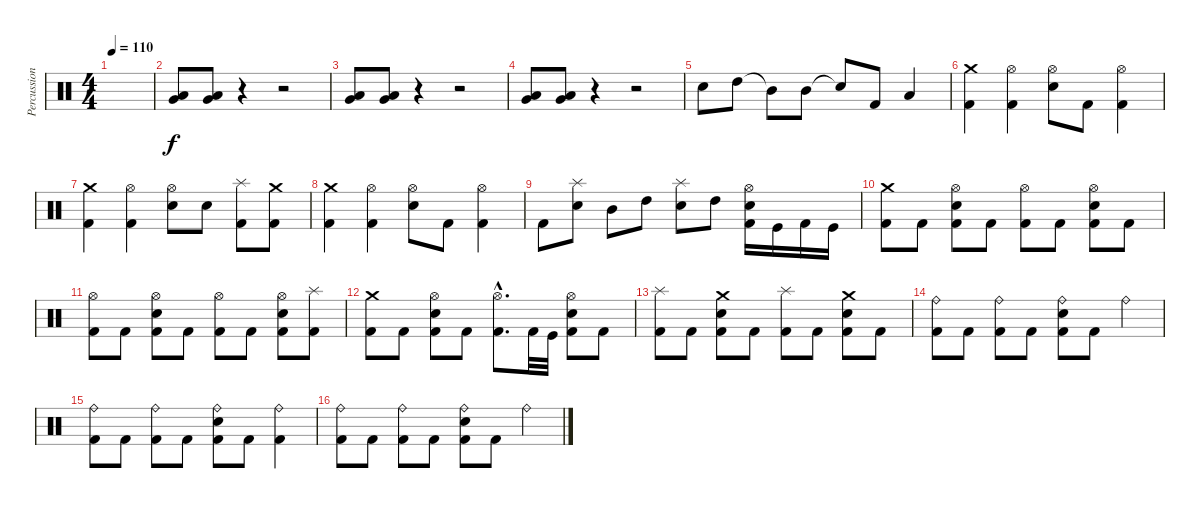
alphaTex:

\track ("Percussions" "Percussion") {instrument percussion}
\staff {score}
\articulation defaults
\ts (4 4)
\tempo 110
\clef neutral
\ks c
|
("Low Floor Tom (hit)" "Very Low Tom (hit)").8 ("Low Floor Tom (hit)" "Very Low Tom (hit)").8 r.4 r.2 |
("Low Floor Tom (hit)" "Very Low Tom (hit)").8 ("Low Floor Tom (hit)" "Very Low Tom (hit)").8 r.4 r.2 |
("Low Floor Tom (hit)" "Very Low Tom (hit)").8 ("Low Floor Tom (hit)" "Very Low Tom (hit)").8 r.4 r.2 |
"Electric Snare (hit)".8 "High Tom (hit)".8 "Mid Tom (hit)"{t}.8 "Mid Tom (hit)".8 "Snare (hit)"{t}.8 "Kick (hit) 2".8 "Low Floor Tom (hit)".4 |
("Crash medium (hit)" "Kick (hit) 2").4 ("Hi-Hat (open)" "Kick (hit) 2").4 ("Hi-Hat (open)" "Electric Snare (hit)").8 "Kick (hit) 2".8 ("Hi-Hat (open)" "Kick (hit) 2").4 |
("Crash medium (hit)" "Kick (hit) 2").4 ("Hi-Hat (open)" "Kick (hit) 2").4 ("Hi-Hat (open)" "Electric Snare (hit)").8 "Electric Snare (hit)".8 ("Splash (hit)" "Kick (hit) 2").8 ("Crash medium (hit)" "Kick (hit) 2").8 |
("Crash medium (hit)" "Kick (hit) 2").4 ("Hi-Hat (open)" "Kick (hit) 2").4 ("Hi-Hat (open)" "Electric Snare (hit)").8 "Kick (hit) 2".8 ("Hi-Hat (open)" "Kick (hit) 2").4 |
"Kick (hit) 2".8 ("Splash (hit)" "Electric Snare (hit)").8 "Mid Tom (hit)".8 "High Tom (hit)".8 ("Splash (hit)" "Electric Snare (hit)").8 "High Tom (hit)".8 ("Hi-Hat (open)" "Electric Snare (hit)" "Kick (hit) 2").16 "Kick (hit)".16 "Kick (hit) 2".16 "Kick (hit)".16 |
("Crash medium (hit)" "Kick (hit) 2").8 "Kick (hit) 2".8 ("Hi-Hat (open)" "Electric Snare (hit)" "Kick (hit) 2").8 "Kick (hit) 2".8 ("Hi-Hat (open)" "Kick (hit) 2").8 "Kick (hit) 2".8 ("Hi-Hat (open)" "Electric Snare (hit)" "Kick (hit) 2").8 "Kick (hit) 2".8 |
("Hi-Hat (open)" "Kick (hit) 2").8 "Kick (hit) 2".8 ("Hi-Hat (open)" "Electric Snare (hit)" "Kick (hit) 2").8 "Kick (hit) 2".8 ("Hi-Hat (open)" "Kick (hit) 2").8 "Kick (hit) 2".8 ("Hi-Hat (open)" "Electric Snare (hit)" "Kick (hit) 2").8 ("Splash (hit)" "Kick (hit) 2").8 |
("Crash medium (hit)" "Kick (hit) 2").8 "Kick (hit) 2".8 ("Hi-Hat (open)" "Electric Snare (hit)" "Kick (hit) 2").8 "Kick (hit) 2".8 ("Hi-Hat (open)"{hac} "Kick (hit) 2"{hac}).8{d} "Kick (hit) 2".32 "Kick (hit)".32 ("Hi-Hat (open)" "Electric Snare (hit)" "Kick (hit) 2").8 "Kick (hit) 2".8 |
("Splash (hit)" "Kick (hit) 2").8 "Kick (hit) 2".8 ("Crash medium (hit)" "Electric Snare (hit)" "Kick (hit) 2").8 "Kick (hit) 2".8 ("Splash (hit)" "Kick (hit) 2").8 "Kick (hit) 2".8 ("Crash medium (hit)" "Electric Snare (hit)" "Kick (hit) 2").8 "Kick (hit) 2".8 |
("Ride (bell)" "Kick (hit) 2").8 "Kick (hit) 2".8 ("Ride (bell)" "Kick (hit) 2").8 "Kick (hit) 2".8 ("Ride (bell)" "Electric Snare (hit)" "Kick (hit) 2").8 "Kick (hit) 2".8 "Ride (bell)".4 |
("Ride (bell)" "Kick (hit) 2").8 "Kick (hit) 2".8 ("Ride (bell)" "Kick (hit) 2").8 "Kick (hit) 2".8 ("Ride (bell)" "Electric Snare (hit)" "Kick (hit) 2").8 "Kick (hit) 2".8 ("Ride (bell)" "Kick (hit) 2").4 |
("Ride (bell)" "Kick (hit) 2").8 "Kick (hit) 2".8 ("Ride (bell)" "Kick (hit) 2").8 "Kick (hit) 2".8 ("Ride (bell)" "Electric Snare (hit)" "Kick (hit) 2").8 "Kick (hit) 2".8 "Ride (bell)".4
